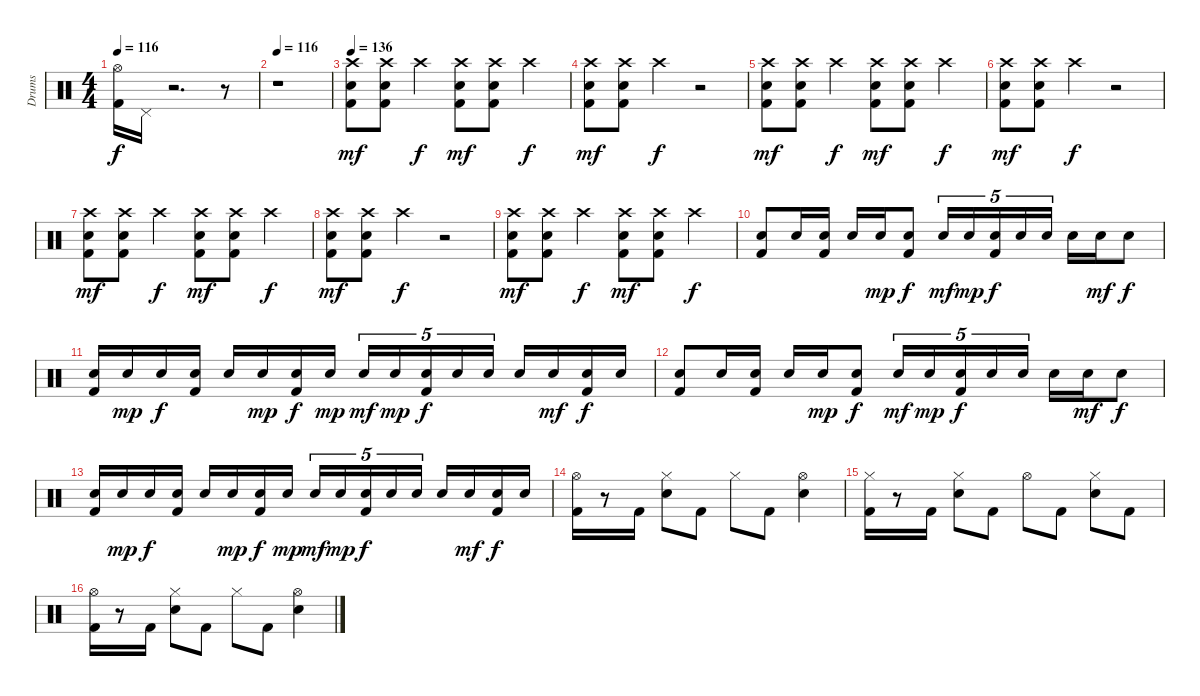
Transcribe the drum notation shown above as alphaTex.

\track ("Drums" "Drums") {instrument percussion}
\staff {score}
\articulation defaults
\ts (4 4)
\tempo 116
\clef neutral
\ks c
("Kick (hit) 2" "Hi-Hat (open)").16{dy f} "Pedal Hi-Hat (hit)".16 r.2{d} r.8 |
\tempo 116
r.1 |
\tempo 136
("Kick (hit) 2" "Snare (hit) 2" "Crash high (hit)").8{dy mf} ("Kick (hit) 2" "Snare (hit) 2" "Crash high (hit)").8 "Crash high (hit)".4{dy f} ("Kick (hit) 2" "Snare (hit) 2" "Crash high (hit)").8{dy mf} ("Kick (hit) 2" "Snare (hit) 2" "Crash high (hit)").8 "Crash high (hit)".4{dy f} |
("Kick (hit) 2" "Snare (hit) 2" "Crash high (hit)").8{dy mf} ("Kick (hit) 2" "Snare (hit) 2" "Crash high (hit)").8 "Crash high (hit)".4{dy f} r.2 |
("Kick (hit) 2" "Snare (hit) 2" "Crash high (hit)").8{dy mf} ("Kick (hit) 2" "Snare (hit) 2" "Crash high (hit)").8 "Crash high (hit)".4{dy f} ("Kick (hit) 2" "Snare (hit) 2" "Crash high (hit)").8{dy mf} ("Kick (hit) 2" "Snare (hit) 2" "Crash high (hit)").8 "Crash high (hit)".4{dy f} |
("Kick (hit) 2" "Snare (hit) 2" "Crash high (hit)").8{dy mf} ("Kick (hit) 2" "Snare (hit) 2" "Crash high (hit)").8 "Crash high (hit)".4{dy f} r.2 |
("Kick (hit) 2" "Snare (hit) 2" "Crash high (hit)").8{dy mf} ("Kick (hit) 2" "Snare (hit) 2" "Crash high (hit)").8 "Crash high (hit)".4{dy f} ("Kick (hit) 2" "Snare (hit) 2" "Crash high (hit)").8{dy mf} ("Kick (hit) 2" "Snare (hit) 2" "Crash high (hit)").8 "Crash high (hit)".4{dy f} |
("Kick (hit) 2" "Snare (hit) 2" "Crash high (hit)").8{dy mf} ("Kick (hit) 2" "Snare (hit) 2" "Crash high (hit)").8 "Crash high (hit)".4{dy f} r.2 |
("Kick (hit) 2" "Snare (hit) 2" "Crash high (hit)").8{dy mf} ("Kick (hit) 2" "Snare (hit) 2" "Crash high (hit)").8 "Crash high (hit)".4{dy f} ("Kick (hit) 2" "Snare (hit) 2" "Crash high (hit)").8{dy mf} ("Kick (hit) 2" "Snare (hit) 2" "Crash high (hit)").8 "Crash high (hit)".4{dy f} |
("Kick (hit) 2" "Snare (hit) 2").8 "Snare (hit) 2".16 ("Kick (hit) 2" "Snare (hit) 2").16 "Snare (hit) 2".16 "Snare (hit) 2".16{dy mp} ("Kick (hit) 2" "Snare (hit) 2").8{dy f} "Snare (hit) 2".16{tu (5 4) dy mf} "Snare (hit) 2".16{tu (5 4) dy mp} ("Kick (hit) 2" "Snare (hit) 2").16{tu (5 4) dy f} "Snare (hit) 2".16{tu (5 4)} "Snare (hit) 2".16{tu (5 4)} "Snare (hit) 2".16 "Snare (hit) 2".16{dy mf} "Snare (hit) 2".8{dy f} |
("Kick (hit) 2" "Snare (hit) 2").16 "Snare (hit) 2".16{dy mp} "Snare (hit) 2".16{dy f} ("Kick (hit) 2" "Snare (hit) 2").16 "Snare (hit) 2".16 "Snare (hit) 2".16{dy mp} ("Kick (hit) 2" "Snare (hit) 2").16{dy f} "Snare (hit) 2".16{dy mp} "Snare (hit) 2".16{tu (5 4) dy mf} "Snare (hit) 2".16{tu (5 4) dy mp} ("Kick (hit) 2" "Snare (hit) 2").16{tu (5 4) dy f} "Snare (hit) 2".16{tu (5 4)} "Snare (hit) 2".16{tu (5 4)} "Snare (hit) 2".16 "Snare (hit) 2".16{dy mf} ("Kick (hit) 2" "Snare (hit) 2").16{dy f} "Snare (hit) 2".16 |
("Kick (hit) 2" "Snare (hit) 2").8 "Snare (hit) 2".16 ("Kick (hit) 2" "Snare (hit) 2").16 "Snare (hit) 2".16 "Snare (hit) 2".16{dy mp} ("Kick (hit) 2" "Snare (hit) 2").8{dy f} "Snare (hit) 2".16{tu (5 4) dy mf} "Snare (hit) 2".16{tu (5 4) dy mp} ("Kick (hit) 2" "Snare (hit) 2").16{tu (5 4) dy f} "Snare (hit) 2".16{tu (5 4)} "Snare (hit) 2".16{tu (5 4)} "Snare (hit) 2".16 "Snare (hit) 2".16{dy mf} "Snare (hit) 2".8{dy f} |
("Kick (hit) 2" "Snare (hit) 2").16 "Snare (hit) 2".16{dy mp} "Snare (hit) 2".16{dy f} ("Kick (hit) 2" "Snare (hit) 2").16 "Snare (hit) 2".16 "Snare (hit) 2".16{dy mp} ("Kick (hit) 2" "Snare (hit) 2").16{dy f} "Snare (hit) 2".16{dy mp} "Snare (hit) 2".16{tu (5 4) dy mf} "Snare (hit) 2".16{tu (5 4) dy mp} ("Kick (hit) 2" "Snare (hit) 2").16{tu (5 4) dy f} "Snare (hit) 2".16{tu (5 4)} "Snare (hit) 2".16{tu (5 4)} "Snare (hit) 2".16 "Snare (hit) 2".16{dy mf} ("Kick (hit) 2" "Snare (hit) 2").16{dy f} "Snare (hit) 2".16 |
("Kick (hit) 2" "Hi-Hat (open)").16 r.8 "Kick (hit) 2".16 ("Snare (hit) 2" "Hi-Hat (closed)").8 "Kick (hit) 2".8 "Hi-Hat (closed)".8 "Kick (hit) 2".8 ("Snare (hit) 2" "Hi-Hat (open)").4 |
("Kick (hit) 2" "Hi-Hat (closed)").16 r.8 "Kick (hit) 2".16 ("Snare (hit) 2" "Hi-Hat (closed)").8 "Kick (hit) 2".8 "Hi-Hat (open)".8 "Kick (hit) 2".8 ("Snare (hit) 2" "Hi-Hat (closed)").8 "Kick (hit) 2".8 |
("Kick (hit) 2" "Hi-Hat (open)").16 r.8 "Kick (hit) 2".16 ("Snare (hit) 2" "Hi-Hat (closed)").8 "Kick (hit) 2".8 "Hi-Hat (closed)".8 "Kick (hit) 2".8 ("Snare (hit) 2" "Hi-Hat (open)").4
